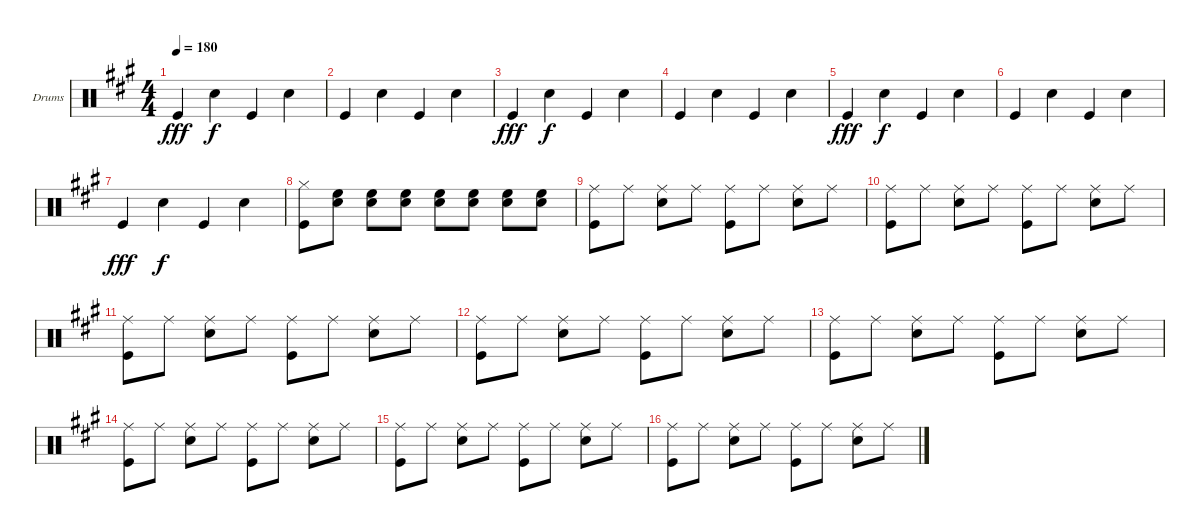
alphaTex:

\bracketExtendMode groupsimilarinstruments
\firstSystemTrackNameOrientation horizontal
\otherSystemsTrackNameOrientation horizontal
\track ("Drumkit" "Drums") {instrument percussion}
\staff {score}
\articulation defaults
\ts (4 4)
\tempo 180
\clef neutral
\ks a "Kick (hit)".4{dy fff} "Snare (hit) 2".4{dy f} "Kick (hit)".4 "Snare (hit) 2".4
|
"Kick (hit)".4 "Snare (hit) 2".4 "Kick (hit)".4 "Snare (hit) 2".4 |
"Kick (hit)".4{dy fff} "Snare (hit) 2".4{dy f} "Kick (hit)".4 "Snare (hit) 2".4 |
"Kick (hit)".4 "Snare (hit) 2".4 "Kick (hit)".4 "Snare (hit) 2".4 |
"Kick (hit)".4{dy fff} "Snare (hit) 2".4{dy f} "Kick (hit)".4 "Snare (hit) 2".4 |
"Kick (hit)".4 "Snare (hit) 2".4 "Kick (hit)".4 "Snare (hit) 2".4 |
"Kick (hit)".4{dy fff} "Snare (hit) 2".4{dy f} "Kick (hit)".4 "Snare (hit) 2".4 |
("Hi-Hat (closed)" "Kick (hit)").8 ("High Floor Tom (hit)" "Snare (hit) 2").8 ("High Floor Tom (hit)" "Snare (hit) 2").8 ("High Floor Tom (hit)" "Snare (hit) 2").8 ("High Floor Tom (hit)" "Snare (hit) 2").8 ("High Floor Tom (hit)" "Snare (hit) 2").8 ("High Floor Tom (hit)" "Snare (hit) 2").8 ("High Floor Tom (hit)" "Snare (hit) 2").8 |
("Ride (middle)" "Kick (hit)").8 "Ride (middle)".8 ("Ride (middle)" "Snare (hit) 2").8 "Ride (middle)".8 ("Ride (middle)" "Kick (hit)").8 "Ride (middle)".8 ("Ride (middle)" "Snare (hit) 2").8 "Ride (middle)".8 |
("Ride (middle)" "Kick (hit)").8 "Ride (middle)".8 ("Ride (middle)" "Snare (hit) 2").8 "Ride (middle)".8 ("Ride (middle)" "Kick (hit)").8 "Ride (middle)".8 ("Ride (middle)" "Snare (hit) 2").8 "Ride (middle)".8 |
("Ride (middle)" "Kick (hit)").8 "Ride (middle)".8 ("Ride (middle)" "Snare (hit) 2").8 "Ride (middle)".8 ("Ride (middle)" "Kick (hit)").8 "Ride (middle)".8 ("Ride (middle)" "Snare (hit) 2").8 "Ride (middle)".8 |
("Ride (middle)" "Kick (hit)").8 "Ride (middle)".8 ("Ride (middle)" "Snare (hit) 2").8 "Ride (middle)".8 ("Ride (middle)" "Kick (hit)").8 "Ride (middle)".8 ("Ride (middle)" "Snare (hit) 2").8 "Ride (middle)".8 |
("Ride (middle)" "Kick (hit)").8 "Ride (middle)".8 ("Ride (middle)" "Snare (hit) 2").8 "Ride (middle)".8 ("Ride (middle)" "Kick (hit)").8 "Ride (middle)".8 ("Ride (middle)" "Snare (hit) 2").8 "Ride (middle)".8 |
("Ride (middle)" "Kick (hit)").8 "Ride (middle)".8 ("Ride (middle)" "Snare (hit) 2").8 "Ride (middle)".8 ("Ride (middle)" "Kick (hit)").8 "Ride (middle)".8 ("Ride (middle)" "Snare (hit) 2").8 "Ride (middle)".8 |
("Ride (middle)" "Kick (hit)").8 "Ride (middle)".8 ("Ride (middle)" "Snare (hit) 2").8 "Ride (middle)".8 ("Ride (middle)" "Kick (hit)").8 "Ride (middle)".8 ("Ride (middle)" "Snare (hit) 2").8 "Ride (middle)".8 |
("Ride (middle)" "Kick (hit)").8 "Ride (middle)".8 ("Ride (middle)" "Snare (hit) 2").8 "Ride (middle)".8 ("Ride (middle)" "Kick (hit)").8 "Ride (middle)".8 ("Ride (middle)" "Snare (hit) 2").8 "Ride (middle)".8
